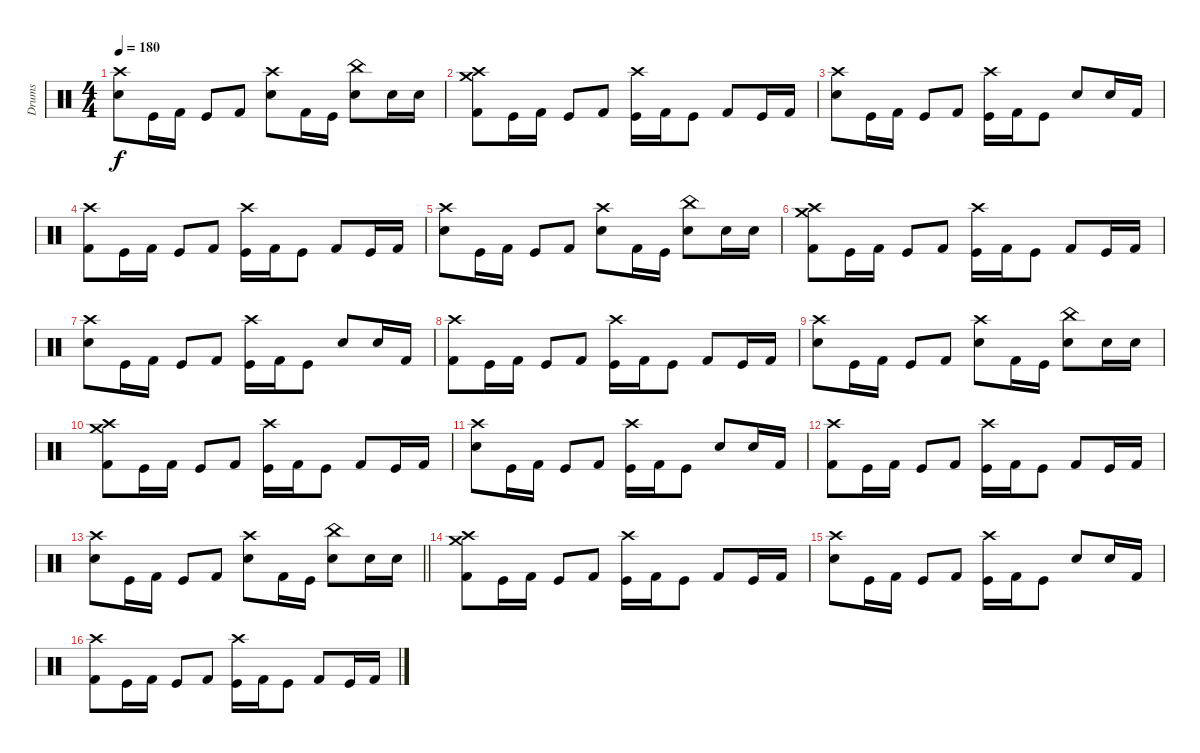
\track ("Drums" "Drums") {instrument percussion}
\staff {score}
\articulation defaults
\ts (4 4)
\tempo 180
\clef neutral
\ks c
("Crash high (hit)" "Electric Snare (hit)").8{dy f} "Kick (hit)".16 "Kick (hit) 2".16 "Kick (hit)".8 "Kick (hit) 2".8 ("Crash high (hit)" "Electric Snare (hit)").8 "Kick (hit) 2".16 "Kick (hit)".16 ("China (hit)" "Electric Snare (hit)").8 "Electric Snare (hit)".16 "Electric Snare (hit)".16 |
("Crash medium (hit)" "Crash high (hit)" "Kick (hit) 2").8 "Kick (hit)".16 "Kick (hit) 2".16 "Kick (hit)".8 "Kick (hit) 2".8 ("Crash high (hit)" "Kick (hit)").16 "Kick (hit) 2".16 "Kick (hit)".8 "Kick (hit) 2".8 "Kick (hit)".16 "Kick (hit) 2".16 |
("Crash high (hit)" "Electric Snare (hit)").8 "Kick (hit)".16 "Kick (hit) 2".16 "Kick (hit)".8 "Kick (hit) 2".8 ("Crash high (hit)" "Kick (hit)").16 "Kick (hit) 2".16 "Kick (hit)".8 "Electric Snare (hit)".8 "Electric Snare (hit)".16 "Kick (hit) 2".16 |
("Crash high (hit)" "Kick (hit) 2").8 "Kick (hit)".16 "Kick (hit) 2".16 "Kick (hit)".8 "Kick (hit) 2".8 ("Crash high (hit)" "Kick (hit)").16 "Kick (hit) 2".16 "Kick (hit)".8 "Kick (hit) 2".8 "Kick (hit)".16 "Kick (hit) 2".16 |
("Crash high (hit)" "Electric Snare (hit)").8 "Kick (hit)".16 "Kick (hit) 2".16 "Kick (hit)".8 "Kick (hit) 2".8 ("Crash high (hit)" "Electric Snare (hit)").8 "Kick (hit) 2".16 "Kick (hit)".16 ("China (hit)" "Electric Snare (hit)").8 "Electric Snare (hit)".16 "Electric Snare (hit)".16 |
("Crash medium (hit)" "Crash high (hit)" "Kick (hit) 2").8 "Kick (hit)".16 "Kick (hit) 2".16 "Kick (hit)".8 "Kick (hit) 2".8 ("Crash high (hit)" "Kick (hit)").16 "Kick (hit) 2".16 "Kick (hit)".8 "Kick (hit) 2".8 "Kick (hit)".16 "Kick (hit) 2".16 |
("Crash high (hit)" "Electric Snare (hit)").8 "Kick (hit)".16 "Kick (hit) 2".16 "Kick (hit)".8 "Kick (hit) 2".8 ("Crash high (hit)" "Kick (hit)").16 "Kick (hit) 2".16 "Kick (hit)".8 "Electric Snare (hit)".8 "Electric Snare (hit)".16 "Kick (hit) 2".16 |
("Crash high (hit)" "Kick (hit) 2").8 "Kick (hit)".16 "Kick (hit) 2".16 "Kick (hit)".8 "Kick (hit) 2".8 ("Crash high (hit)" "Kick (hit)").16 "Kick (hit) 2".16 "Kick (hit)".8 "Kick (hit) 2".8 "Kick (hit)".16 "Kick (hit) 2".16 |
("Crash high (hit)" "Electric Snare (hit)").8 "Kick (hit)".16 "Kick (hit) 2".16 "Kick (hit)".8 "Kick (hit) 2".8 ("Crash high (hit)" "Electric Snare (hit)").8 "Kick (hit) 2".16 "Kick (hit)".16 ("China (hit)" "Electric Snare (hit)").8 "Electric Snare (hit)".16 "Electric Snare (hit)".16 |
("Crash medium (hit)" "Crash high (hit)" "Kick (hit) 2").8 "Kick (hit)".16 "Kick (hit) 2".16 "Kick (hit)".8 "Kick (hit) 2".8 ("Crash high (hit)" "Kick (hit)").16 "Kick (hit) 2".16 "Kick (hit)".8 "Kick (hit) 2".8 "Kick (hit)".16 "Kick (hit) 2".16 |
("Crash high (hit)" "Electric Snare (hit)").8 "Kick (hit)".16 "Kick (hit) 2".16 "Kick (hit)".8 "Kick (hit) 2".8 ("Crash high (hit)" "Kick (hit)").16 "Kick (hit) 2".16 "Kick (hit)".8 "Electric Snare (hit)".8 "Electric Snare (hit)".16 "Kick (hit) 2".16 |
("Crash high (hit)" "Kick (hit) 2").8 "Kick (hit)".16 "Kick (hit) 2".16 "Kick (hit)".8 "Kick (hit) 2".8 ("Crash high (hit)" "Kick (hit)").16 "Kick (hit) 2".16 "Kick (hit)".8 "Kick (hit) 2".8 "Kick (hit)".16 "Kick (hit) 2".16 |
\barLineRight lightlight
("Crash high (hit)" "Electric Snare (hit)").8 "Kick (hit)".16 "Kick (hit) 2".16 "Kick (hit)".8 "Kick (hit) 2".8 ("Crash high (hit)" "Electric Snare (hit)").8 "Kick (hit) 2".16 "Kick (hit)".16 ("China (hit)" "Electric Snare (hit)").8 "Electric Snare (hit)".16 "Electric Snare (hit)".16 |
("Crash medium (hit)" "Crash high (hit)" "Kick (hit) 2").8 "Kick (hit)".16 "Kick (hit) 2".16 "Kick (hit)".8 "Kick (hit) 2".8 ("Crash high (hit)" "Kick (hit)").16 "Kick (hit) 2".16 "Kick (hit)".8 "Kick (hit) 2".8 "Kick (hit)".16 "Kick (hit) 2".16 |
("Crash high (hit)" "Electric Snare (hit)").8 "Kick (hit)".16 "Kick (hit) 2".16 "Kick (hit)".8 "Kick (hit) 2".8 ("Crash high (hit)" "Kick (hit)").16 "Kick (hit) 2".16 "Kick (hit)".8 "Electric Snare (hit)".8 "Electric Snare (hit)".16 "Kick (hit) 2".16 |
("Crash high (hit)" "Kick (hit) 2").8 "Kick (hit)".16 "Kick (hit) 2".16 "Kick (hit)".8 "Kick (hit) 2".8 ("Crash high (hit)" "Kick (hit)").16 "Kick (hit) 2".16 "Kick (hit)".8 "Kick (hit) 2".8 "Kick (hit)".16 "Kick (hit) 2".16
